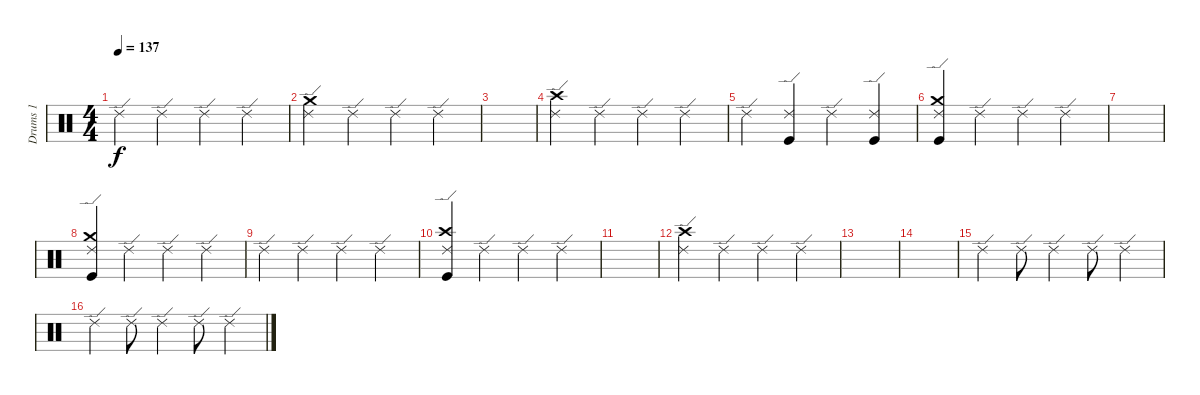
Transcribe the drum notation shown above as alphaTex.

\track ("Drums 1" "Drums 1") {instrument percussion}
\staff {score}
\articulation defaults
\ts (4 4)
\tempo 137
\clef neutral
\ks c "Ride (edge) 2".4{dy f} "Ride (edge) 2".4 "Ride (edge) 2".4 "Ride (edge) 2".4
|
("Crash medium (hit)" "Ride (edge) 2").4 "Ride (edge) 2".4 "Ride (edge) 2".4 "Ride (edge) 2".4 |
|
("Crash high (hit)" "Ride (edge) 2").4 "Ride (edge) 2".4 "Ride (edge) 2".4 "Ride (edge) 2".4 |
"Ride (edge) 2".4 ("Ride (edge) 2" "Kick (hit)").4 "Ride (edge) 2".4 ("Ride (edge) 2" "Kick (hit)").4 |
("Crash medium (hit)" "Ride (edge) 2" "Kick (hit)").4 "Ride (edge) 2".4 "Ride (edge) 2".4 "Ride (edge) 2".4 |
|
("Crash medium (hit)" "Ride (edge) 2" "Kick (hit)").4 "Ride (edge) 2".4 "Ride (edge) 2".4 "Ride (edge) 2".4 |
"Ride (edge) 2".4 "Ride (edge) 2".4 "Ride (edge) 2".4 "Ride (edge) 2".4 |
("Crash high (hit)" "Ride (edge) 2" "Kick (hit)").4 "Ride (edge) 2".4 "Ride (edge) 2".4 "Ride (edge) 2".4 |
|
("Crash high (hit)" "Ride (edge) 2").4 "Ride (edge) 2".4 "Ride (edge) 2".4 "Ride (edge) 2".4 |
|
|
"Ride (edge) 2".4 "Ride (edge) 2".8 "Ride (edge) 2".4 "Ride (edge) 2".8 "Ride (edge) 2".4 |
"Ride (edge) 2".4 "Ride (edge) 2".8 "Ride (edge) 2".4 "Ride (edge) 2".8 "Ride (edge) 2".4
